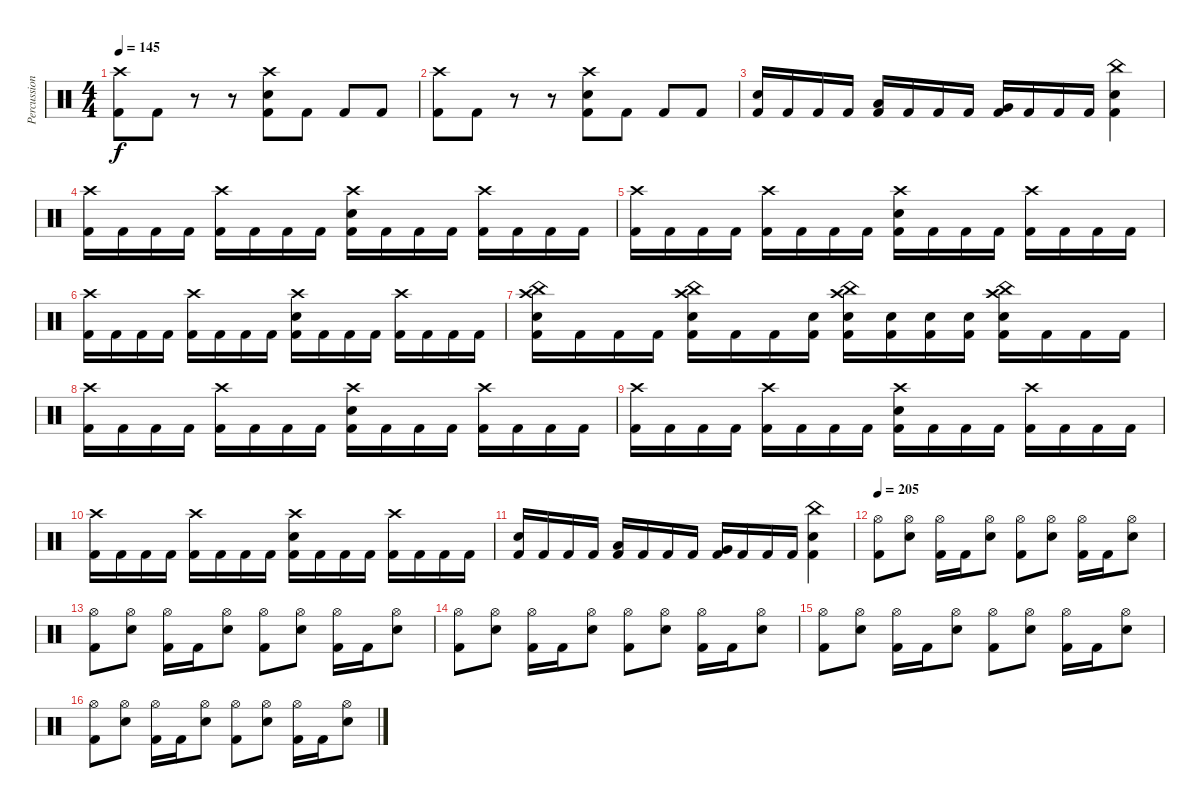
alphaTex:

\track ("Percussion" "Percussion") {instrument percussion}
\staff {score}
\articulation defaults
\ts (4 4)
\tempo 145
\clef neutral
\ks c
("Crash high (hit)" "Kick (hit) 2").8{dy f} "Kick (hit) 2".8 r.8 r.8 ("Crash high (hit)" "Electric Snare (hit)" "Kick (hit) 2").8 "Kick (hit) 2".8 "Kick (hit) 2".8 "Kick (hit) 2".8 |
("Crash high (hit)" "Kick (hit) 2").8 "Kick (hit) 2".8 r.8 r.8 ("Crash high (hit)" "Electric Snare (hit)" "Kick (hit) 2").8 "Kick (hit) 2".8 "Kick (hit) 2".8 "Kick (hit) 2".8 |
("Electric Snare (hit)" "Kick (hit) 2").16 "Kick (hit) 2".16 "Kick (hit) 2".16 "Kick (hit) 2".16 ("Low Tom (hit)" "Kick (hit) 2").16 "Kick (hit) 2".16 "Kick (hit) 2".16 "Kick (hit) 2".16 ("Very Low Tom (hit)" "Kick (hit) 2").16 "Kick (hit) 2".16 "Kick (hit) 2".16 "Kick (hit) 2".16 ("China (hit)" "Electric Snare (hit)" "Kick (hit) 2").4 |
("Crash high (hit)" "Kick (hit) 2").16 "Kick (hit) 2".16 "Kick (hit) 2".16 "Kick (hit) 2".16 ("Crash high (hit)" "Kick (hit) 2").16 "Kick (hit) 2".16 "Kick (hit) 2".16 "Kick (hit) 2".16 ("Crash high (hit)" "Electric Snare (hit)" "Kick (hit) 2").16 "Kick (hit) 2".16 "Kick (hit) 2".16 "Kick (hit) 2".16 ("Crash high (hit)" "Kick (hit) 2").16 "Kick (hit) 2".16 "Kick (hit) 2".16 "Kick (hit) 2".16 |
("Crash high (hit)" "Kick (hit) 2").16 "Kick (hit) 2".16 "Kick (hit) 2".16 "Kick (hit) 2".16 ("Crash high (hit)" "Kick (hit) 2").16 "Kick (hit) 2".16 "Kick (hit) 2".16 "Kick (hit) 2".16 ("Crash high (hit)" "Electric Snare (hit)" "Kick (hit) 2").16 "Kick (hit) 2".16 "Kick (hit) 2".16 "Kick (hit) 2".16 ("Crash high (hit)" "Kick (hit) 2").16 "Kick (hit) 2".16 "Kick (hit) 2".16 "Kick (hit) 2".16 |
("Crash high (hit)" "Kick (hit) 2").16 "Kick (hit) 2".16 "Kick (hit) 2".16 "Kick (hit) 2".16 ("Crash high (hit)" "Kick (hit) 2").16 "Kick (hit) 2".16 "Kick (hit) 2".16 "Kick (hit) 2".16 ("Crash high (hit)" "Electric Snare (hit)" "Kick (hit) 2").16 "Kick (hit) 2".16 "Kick (hit) 2".16 "Kick (hit) 2".16 ("Crash high (hit)" "Kick (hit) 2").16 "Kick (hit) 2".16 "Kick (hit) 2".16 "Kick (hit) 2".16 |
("Crash high (hit)" "China (hit)" "Electric Snare (hit)" "Kick (hit) 2").16 "Kick (hit) 2".16 "Kick (hit) 2".16 "Kick (hit) 2".16 ("Crash high (hit)" "China (hit)" "Electric Snare (hit)" "Kick (hit) 2").16 "Kick (hit) 2".16 "Kick (hit) 2".16 ("Electric Snare (hit)" "Kick (hit) 2").16 ("Crash high (hit)" "China (hit)" "Electric Snare (hit)" "Kick (hit) 2").16 ("Electric Snare (hit)" "Kick (hit) 2").16 ("Electric Snare (hit)" "Kick (hit) 2").16 ("Electric Snare (hit)" "Kick (hit) 2").16 ("Crash high (hit)" "China (hit)" "Electric Snare (hit)" "Kick (hit) 2").16 "Kick (hit) 2".16 "Kick (hit) 2".16 "Kick (hit) 2".16 |
("Crash high (hit)" "Kick (hit) 2").16 "Kick (hit) 2".16 "Kick (hit) 2".16 "Kick (hit) 2".16 ("Crash high (hit)" "Kick (hit) 2").16 "Kick (hit) 2".16 "Kick (hit) 2".16 "Kick (hit) 2".16 ("Crash high (hit)" "Electric Snare (hit)" "Kick (hit) 2").16 "Kick (hit) 2".16 "Kick (hit) 2".16 "Kick (hit) 2".16 ("Crash high (hit)" "Kick (hit) 2").16 "Kick (hit) 2".16 "Kick (hit) 2".16 "Kick (hit) 2".16 |
("Crash high (hit)" "Kick (hit) 2").16 "Kick (hit) 2".16 "Kick (hit) 2".16 "Kick (hit) 2".16 ("Crash high (hit)" "Kick (hit) 2").16 "Kick (hit) 2".16 "Kick (hit) 2".16 "Kick (hit) 2".16 ("Crash high (hit)" "Electric Snare (hit)" "Kick (hit) 2").16 "Kick (hit) 2".16 "Kick (hit) 2".16 "Kick (hit) 2".16 ("Crash high (hit)" "Kick (hit) 2").16 "Kick (hit) 2".16 "Kick (hit) 2".16 "Kick (hit) 2".16 |
("Crash high (hit)" "Kick (hit) 2").16 "Kick (hit) 2".16 "Kick (hit) 2".16 "Kick (hit) 2".16 ("Crash high (hit)" "Kick (hit) 2").16 "Kick (hit) 2".16 "Kick (hit) 2".16 "Kick (hit) 2".16 ("Crash high (hit)" "Electric Snare (hit)" "Kick (hit) 2").16 "Kick (hit) 2".16 "Kick (hit) 2".16 "Kick (hit) 2".16 ("Crash high (hit)" "Kick (hit) 2").16 "Kick (hit) 2".16 "Kick (hit) 2".16 "Kick (hit) 2".16 |
("Electric Snare (hit)" "Kick (hit) 2").16 "Kick (hit) 2".16 "Kick (hit) 2".16 "Kick (hit) 2".16 ("Low Tom (hit)" "Kick (hit) 2").16 "Kick (hit) 2".16 "Kick (hit) 2".16 "Kick (hit) 2".16 ("Very Low Tom (hit)" "Kick (hit) 2").16 "Kick (hit) 2".16 "Kick (hit) 2".16 "Kick (hit) 2".16 ("China (hit)" "Electric Snare (hit)" "Kick (hit) 2").4 |
\tempo 205
("Hi-Hat (open)" "Kick (hit) 2").8 ("Hi-Hat (open)" "Electric Snare (hit)").8 ("Hi-Hat (open)" "Kick (hit) 2").16 "Kick (hit) 2".16 ("Hi-Hat (open)" "Electric Snare (hit)").8 ("Hi-Hat (open)" "Kick (hit) 2").8 ("Hi-Hat (open)" "Electric Snare (hit)").8 ("Hi-Hat (open)" "Kick (hit) 2").16 "Kick (hit) 2".16 ("Hi-Hat (open)" "Electric Snare (hit)").8 |
("Hi-Hat (open)" "Kick (hit) 2").8 ("Hi-Hat (open)" "Electric Snare (hit)").8 ("Hi-Hat (open)" "Kick (hit) 2").16 "Kick (hit) 2".16 ("Hi-Hat (open)" "Electric Snare (hit)").8 ("Hi-Hat (open)" "Kick (hit) 2").8 ("Hi-Hat (open)" "Electric Snare (hit)").8 ("Hi-Hat (open)" "Kick (hit) 2").16 "Kick (hit) 2".16 ("Hi-Hat (open)" "Electric Snare (hit)").8 |
("Hi-Hat (open)" "Kick (hit) 2").8 ("Hi-Hat (open)" "Electric Snare (hit)").8 ("Hi-Hat (open)" "Kick (hit) 2").16 "Kick (hit) 2".16 ("Hi-Hat (open)" "Electric Snare (hit)").8 ("Hi-Hat (open)" "Kick (hit) 2").8 ("Hi-Hat (open)" "Electric Snare (hit)").8 ("Hi-Hat (open)" "Kick (hit) 2").16 "Kick (hit) 2".16 ("Hi-Hat (open)" "Electric Snare (hit)").8 |
("Hi-Hat (open)" "Kick (hit) 2").8 ("Hi-Hat (open)" "Electric Snare (hit)").8 ("Hi-Hat (open)" "Kick (hit) 2").16 "Kick (hit) 2".16 ("Hi-Hat (open)" "Electric Snare (hit)").8 ("Hi-Hat (open)" "Kick (hit) 2").8 ("Hi-Hat (open)" "Electric Snare (hit)").8 ("Hi-Hat (open)" "Kick (hit) 2").16 "Kick (hit) 2".16 ("Hi-Hat (open)" "Electric Snare (hit)").8 |
("Hi-Hat (open)" "Kick (hit) 2").8 ("Hi-Hat (open)" "Electric Snare (hit)").8 ("Hi-Hat (open)" "Kick (hit) 2").16 "Kick (hit) 2".16 ("Hi-Hat (open)" "Electric Snare (hit)").8 ("Hi-Hat (open)" "Kick (hit) 2").8 ("Hi-Hat (open)" "Electric Snare (hit)").8 ("Hi-Hat (open)" "Kick (hit) 2").16 "Kick (hit) 2".16 ("Hi-Hat (open)" "Electric Snare (hit)").8
